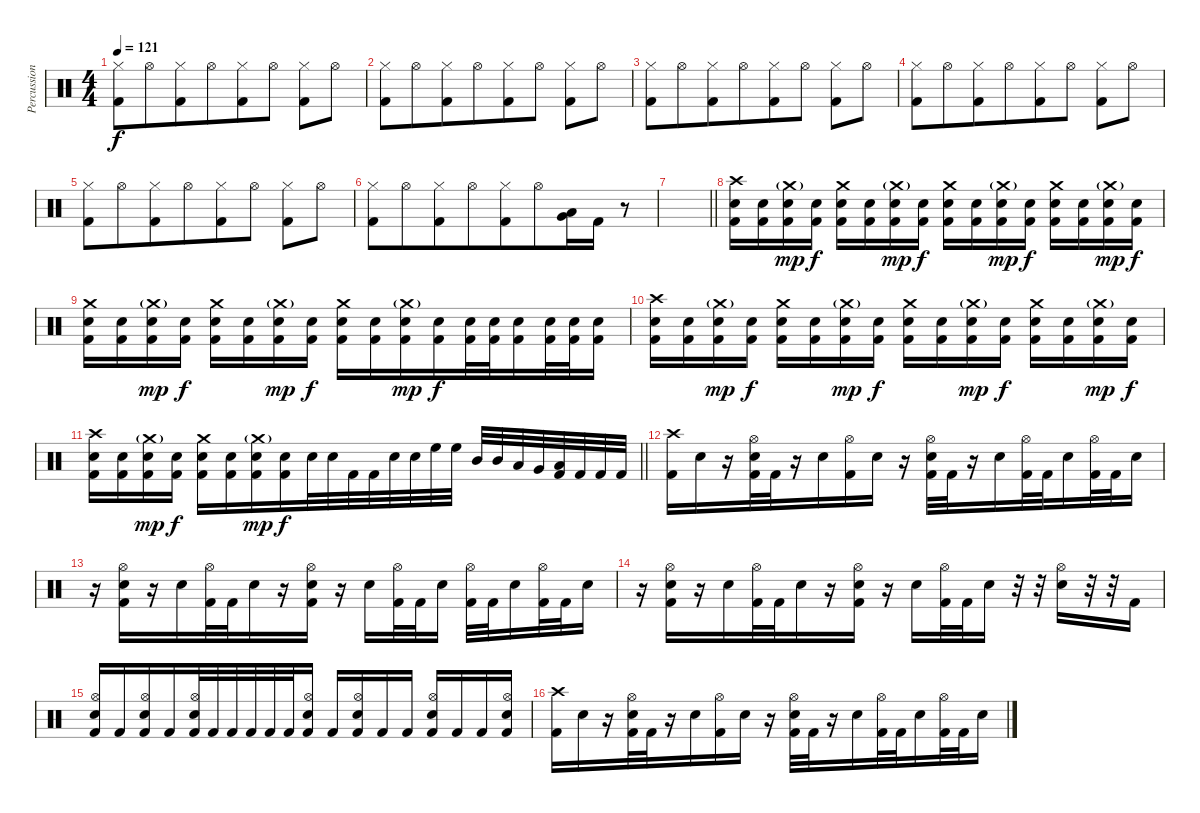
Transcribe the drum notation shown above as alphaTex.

\track ("Percussion" "Percussion") {instrument percussion}
\staff {score}
\articulation defaults
\ts (4 4)
\tempo 121
\clef neutral
\ks c
("Hi-Hat (closed)" "Kick (hit) 2").8{dy f} "Hi-Hat (open)".8{beam merge} ("Hi-Hat (closed)" "Kick (hit) 2").8{beam merge} "Hi-Hat (open)".8{beam merge} ("Hi-Hat (closed)" "Kick (hit) 2").8 "Hi-Hat (open)".8 ("Hi-Hat (closed)" "Kick (hit) 2").8 "Hi-Hat (open)".8 |
("Hi-Hat (closed)" "Kick (hit) 2").8 "Hi-Hat (open)".8{beam merge} ("Hi-Hat (closed)" "Kick (hit) 2").8{beam merge} "Hi-Hat (open)".8{beam merge} ("Hi-Hat (closed)" "Kick (hit) 2").8 "Hi-Hat (open)".8 ("Hi-Hat (closed)" "Kick (hit) 2").8 "Hi-Hat (open)".8 |
("Hi-Hat (closed)" "Kick (hit) 2").8 "Hi-Hat (open)".8{beam merge} ("Hi-Hat (closed)" "Kick (hit) 2").8{beam merge} "Hi-Hat (open)".8{beam merge} ("Hi-Hat (closed)" "Kick (hit) 2").8 "Hi-Hat (open)".8 ("Hi-Hat (closed)" "Kick (hit) 2").8 "Hi-Hat (open)".8 |
("Hi-Hat (closed)" "Kick (hit) 2").8 "Hi-Hat (open)".8{beam merge} ("Hi-Hat (closed)" "Kick (hit) 2").8{beam merge} "Hi-Hat (open)".8{beam merge} ("Hi-Hat (closed)" "Kick (hit) 2").8 "Hi-Hat (open)".8 ("Hi-Hat (closed)" "Kick (hit) 2").8 "Hi-Hat (open)".8 |
("Hi-Hat (closed)" "Kick (hit) 2").8 "Hi-Hat (open)".8{beam merge} ("Hi-Hat (closed)" "Kick (hit) 2").8{beam merge} "Hi-Hat (open)".8{beam merge} ("Hi-Hat (closed)" "Kick (hit) 2").8 "Hi-Hat (open)".8 ("Hi-Hat (closed)" "Kick (hit) 2").8 "Hi-Hat (open)".8 |
("Hi-Hat (closed)" "Kick (hit) 2").8 "Hi-Hat (open)".8{beam merge} ("Hi-Hat (closed)" "Kick (hit) 2").8{beam merge} "Hi-Hat (open)".8{beam merge} ("Hi-Hat (closed)" "Kick (hit) 2").8 "Hi-Hat (open)".8{beam merge} ("Very Low Tom (hit)" "Low Floor Tom (hit)").16 "Kick (hit) 2".16 r.8 |
\barLineRight lightlight
|
\section ("" "")
("Crash high (hit)" "Electric Snare (hit)" "Kick (hit) 2").16 ("Electric Snare (hit)" "Kick (hit) 2").16{beam merge} ("Crash medium (hit)"{g} "Electric Snare (hit)" "Kick (hit) 2").16{dy mp beam merge} ("Electric Snare (hit)" "Kick (hit) 2").16{dy f} ("Crash medium (hit)" "Electric Snare (hit)" "Kick (hit) 2").16 ("Electric Snare (hit)" "Kick (hit) 2").16 ("Crash medium (hit)"{g} "Electric Snare (hit)" "Kick (hit) 2").16{dy mp beam merge} ("Electric Snare (hit)" "Kick (hit) 2").16{dy f} ("Crash medium (hit)" "Electric Snare (hit)" "Kick (hit) 2").16 ("Electric Snare (hit)" "Kick (hit) 2").16{beam merge} ("Crash medium (hit)"{g} "Electric Snare (hit)" "Kick (hit) 2").16{dy mp beam merge} ("Electric Snare (hit)" "Kick (hit) 2").16{dy f} ("Crash medium (hit)" "Electric Snare (hit)" "Kick (hit) 2").16 ("Electric Snare (hit)" "Kick (hit) 2").16 ("Crash medium (hit)"{g} "Electric Snare (hit)" "Kick (hit) 2").16{dy mp beam merge} ("Electric Snare (hit)" "Kick (hit) 2").16{dy f} |
("Crash medium (hit)" "Electric Snare (hit)" "Kick (hit) 2").16 ("Electric Snare (hit)" "Kick (hit) 2").16{beam merge} ("Crash medium (hit)"{g} "Electric Snare (hit)" "Kick (hit) 2").16{dy mp beam merge} ("Electric Snare (hit)" "Kick (hit) 2").16{dy f} ("Crash medium (hit)" "Electric Snare (hit)" "Kick (hit) 2").16 ("Electric Snare (hit)" "Kick (hit) 2").16 ("Crash medium (hit)"{g} "Electric Snare (hit)" "Kick (hit) 2").16{dy mp beam merge} ("Electric Snare (hit)" "Kick (hit) 2").16{dy f} ("Crash medium (hit)" "Electric Snare (hit)" "Kick (hit) 2").16 ("Electric Snare (hit)" "Kick (hit) 2").16{beam merge} ("Crash medium (hit)"{g} "Electric Snare (hit)" "Kick (hit) 2").16{dy mp beam merge} ("Electric Snare (hit)" "Kick (hit) 2").16{dy f beam merge} ("Electric Snare (hit)" "Kick (hit) 2").32{beam merge} ("Electric Snare (hit)" "Kick (hit) 2").32{beam merge} ("Electric Snare (hit)" "Kick (hit) 2").16{beam merge} ("Electric Snare (hit)" "Kick (hit) 2").32 ("Electric Snare (hit)" "Kick (hit) 2").32{beam merge} ("Electric Snare (hit)" "Kick (hit) 2").16 |
("Crash high (hit)" "Electric Snare (hit)" "Kick (hit) 2").16 ("Electric Snare (hit)" "Kick (hit) 2").16{beam merge} ("Crash medium (hit)"{g} "Electric Snare (hit)" "Kick (hit) 2").16{dy mp beam merge} ("Electric Snare (hit)" "Kick (hit) 2").16{dy f} ("Crash medium (hit)" "Electric Snare (hit)" "Kick (hit) 2").16 ("Electric Snare (hit)" "Kick (hit) 2").16 ("Crash medium (hit)"{g} "Electric Snare (hit)" "Kick (hit) 2").16{dy mp beam merge} ("Electric Snare (hit)" "Kick (hit) 2").16{dy f} ("Crash medium (hit)" "Electric Snare (hit)" "Kick (hit) 2").16 ("Electric Snare (hit)" "Kick (hit) 2").16{beam merge} ("Crash medium (hit)"{g} "Electric Snare (hit)" "Kick (hit) 2").16{dy mp beam merge} ("Electric Snare (hit)" "Kick (hit) 2").16{dy f} ("Crash medium (hit)" "Electric Snare (hit)" "Kick (hit) 2").16 ("Electric Snare (hit)" "Kick (hit) 2").16 ("Crash medium (hit)"{g} "Electric Snare (hit)" "Kick (hit) 2").16{dy mp beam merge} ("Electric Snare (hit)" "Kick (hit) 2").16{dy f} |
\barLineRight lightlight
("Crash high (hit)" "Electric Snare (hit)" "Kick (hit) 2").16 ("Electric Snare (hit)" "Kick (hit) 2").16{beam merge} ("Crash medium (hit)"{g} "Electric Snare (hit)" "Kick (hit) 2").16{dy mp beam merge} ("Electric Snare (hit)" "Kick (hit) 2").16{dy f} ("Crash medium (hit)" "Electric Snare (hit)" "Kick (hit) 2").16 ("Electric Snare (hit)" "Kick (hit) 2").16 ("Crash medium (hit)"{g} "Electric Snare (hit)" "Kick (hit) 2").16{dy mp beam merge} ("Electric Snare (hit)" "Kick (hit) 2").16{dy f beam merge} "Electric Snare (hit)".32{beam merge} "Electric Snare (hit)".32{beam merge} "Kick (hit) 2".32 "Kick (hit) 2".32{beam merge} "Electric Snare (hit)".32 "Electric Snare (hit)".32 "High Floor Tom (hit)".32 "High Floor Tom (hit)".32 "Mid Tom (hit)".32 "Mid Tom (hit)".32 "Low Tom (hit)".32{beam merge} "Very Low Tom (hit)".32{beam merge} ("Low Floor Tom (hit)" "Kick (hit) 2").32 "Kick (hit) 2".32{beam merge} "Kick (hit) 2".32 "Kick (hit) 2".32 |
\section ("" "")
("Crash high (hit)" "Kick (hit) 2").16 "Electric Snare (hit)".16{beam merge} r.16 ("Hi-Hat (open)" "Electric Snare (hit)" "Kick (hit) 2").32 "Kick (hit) 2".32{beam merge} r.16 "Electric Snare (hit)".16{beam merge} ("Hi-Hat (open)" "Kick (hit) 2").16 "Electric Snare (hit)".16 r.16{beam merge} ("Hi-Hat (open)" "Electric Snare (hit)" "Kick (hit) 2").32{beam merge} "Kick (hit) 2".32{beam merge} r.16 "Electric Snare (hit)".16{beam merge} ("Hi-Hat (open)" "Kick (hit) 2").32 "Kick (hit) 2".32 "Electric Snare (hit)".16{beam merge} ("Hi-Hat (open)" "Kick (hit) 2").32 "Kick (hit) 2".32 "Electric Snare (hit)".16 |
r.16 ("Hi-Hat (open)" "Electric Snare (hit)" "Kick (hit) 2").16 r.16 "Electric Snare (hit)".16{beam merge} ("Hi-Hat (open)" "Kick (hit) 2").32 "Kick (hit) 2".32 "Electric Snare (hit)".16 r.16 ("Hi-Hat (open)" "Electric Snare (hit)" "Kick (hit) 2").16 r.16 "Electric Snare (hit)".16 ("Hi-Hat (open)" "Kick (hit) 2").32{beam merge} "Kick (hit) 2".32 "Electric Snare (hit)".16 ("Hi-Hat (open)" "Kick (hit) 2").32{beam merge} "Kick (hit) 2".32 "Electric Snare (hit)".16{beam merge} ("Hi-Hat (open)" "Kick (hit) 2").32{beam merge} "Kick (hit) 2".32 "Electric Snare (hit)".16 |
r.16 ("Hi-Hat (open)" "Electric Snare (hit)" "Kick (hit) 2").16 r.16 "Electric Snare (hit)".16{beam merge} ("Hi-Hat (open)" "Kick (hit) 2").32 "Kick (hit) 2".32 "Electric Snare (hit)".16 r.16 ("Hi-Hat (open)" "Electric Snare (hit)" "Kick (hit) 2").16 r.16 "Electric Snare (hit)".16 ("Hi-Hat (open)" "Kick (hit) 2").32{beam merge} "Kick (hit) 2".32 "Electric Snare (hit)".16 r.32{beam merge} r.32 ("Hi-Hat (open)" "Electric Snare (hit)").16{beam merge} r.32{beam merge} r.32 "Kick (hit) 2".16 |
("Hi-Hat (open)" "Electric Snare (hit)" "Kick (hit) 2").16 "Kick (hit) 2".16 ("Hi-Hat (open)" "Electric Snare (hit)" "Kick (hit) 2").16 "Kick (hit) 2".16{beam merge} ("Hi-Hat (open)" "Electric Snare (hit)" "Kick (hit) 2").32 "Kick (hit) 2".32 "Kick (hit) 2".32 "Kick (hit) 2".32 "Kick (hit) 2".32{beam merge} "Kick (hit) 2".32 ("Hi-Hat (open)" "Electric Snare (hit)" "Kick (hit) 2").16 "Kick (hit) 2".16 ("Hi-Hat (open)" "Electric Snare (hit)" "Kick (hit) 2").16 "Kick (hit) 2".16 "Kick (hit) 2".16 ("Hi-Hat (open)" "Electric Snare (hit)" "Kick (hit) 2").16 "Kick (hit) 2".16 "Kick (hit) 2".16 ("Hi-Hat (open)" "Electric Snare (hit)" "Kick (hit) 2").16 |
("Crash high (hit)" "Kick (hit) 2").16 "Electric Snare (hit)".16{beam merge} r.16 ("Hi-Hat (open)" "Electric Snare (hit)" "Kick (hit) 2").32 "Kick (hit) 2".32{beam merge} r.16 "Electric Snare (hit)".16{beam merge} ("Hi-Hat (open)" "Kick (hit) 2").16 "Electric Snare (hit)".16 r.16{beam merge} ("Hi-Hat (open)" "Electric Snare (hit)" "Kick (hit) 2").32{beam merge} "Kick (hit) 2".32{beam merge} r.16 "Electric Snare (hit)".16{beam merge} ("Hi-Hat (open)" "Kick (hit) 2").32 "Kick (hit) 2".32 "Electric Snare (hit)".16{beam merge} ("Hi-Hat (open)" "Kick (hit) 2").32 "Kick (hit) 2".32 "Electric Snare (hit)".16
